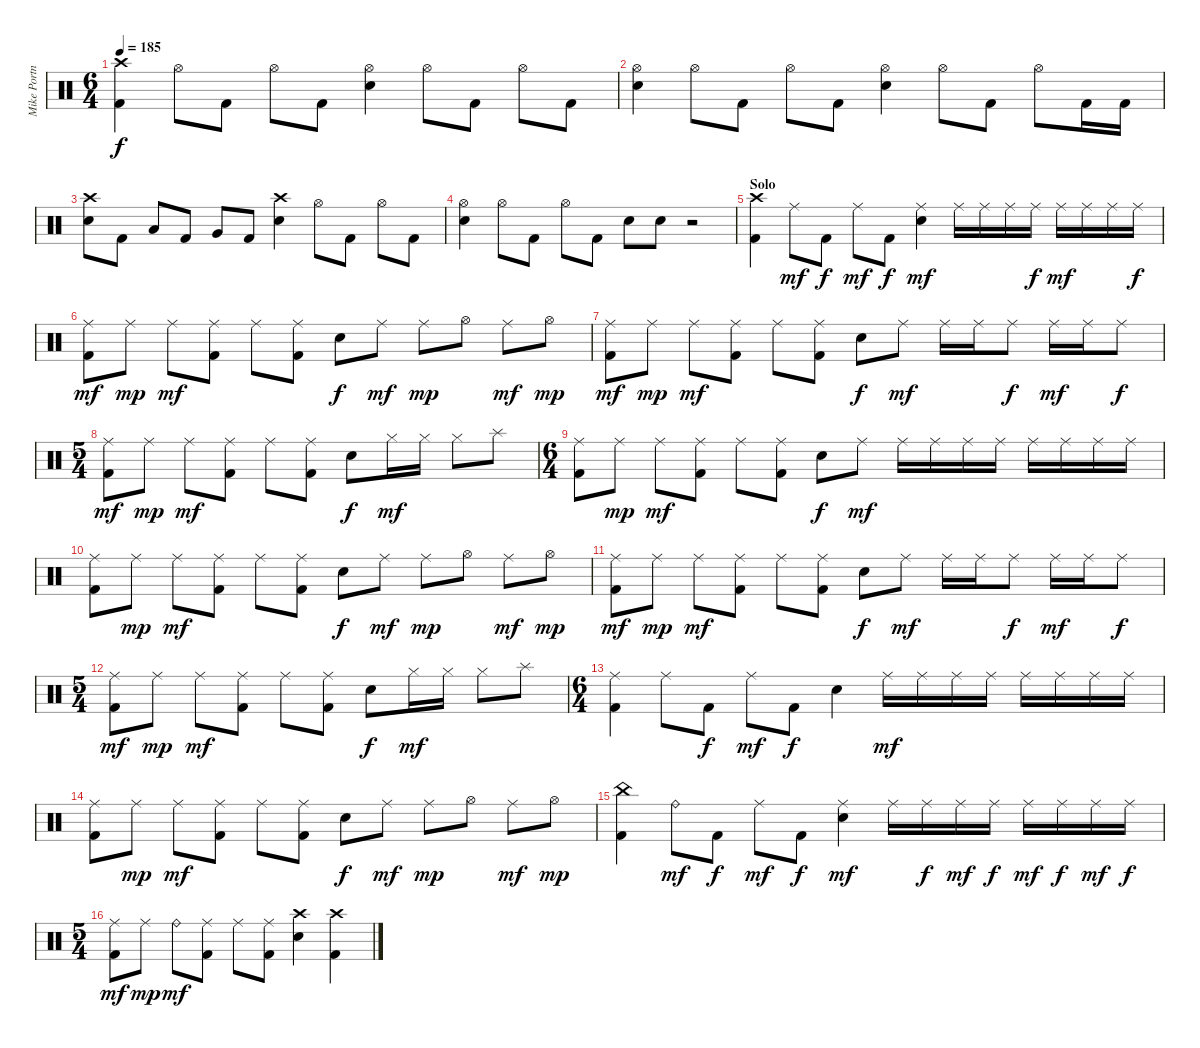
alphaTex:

\track ("Mike Portnoy" "Mike Portn") {instrument percussion}
\staff {score}
\articulation defaults
\ts (6 4)
\tempo 185
\clef neutral
\ks c
("Crash high (hit)" "Kick (hit) 2").4{dy f} "Hi-Hat (open)".8 "Kick (hit) 2".8 "Hi-Hat (open)".8 "Kick (hit) 2".8 ("Snare (hit) 2" "Hi-Hat (open)").4 "Hi-Hat (open)".8 "Kick (hit) 2".8 "Hi-Hat (open)".8 "Kick (hit) 2".8 |
("Snare (hit) 2" "Hi-Hat (open)").4 "Hi-Hat (open)".8 "Kick (hit) 2".8 "Hi-Hat (open)".8 "Kick (hit) 2".8 ("Snare (hit) 2" "Hi-Hat (open)").4 "Hi-Hat (open)".8 "Kick (hit) 2".8 "Hi-Hat (open)".8 "Kick (hit) 2".16 "Kick (hit) 2".16 |
("Snare (hit) 2" "Crash high (hit)").8 "Kick (hit) 2".8 "Low Tom (hit)".8 "Kick (hit) 2".8 "Very Low Tom (hit)".8 "Kick (hit) 2".8 ("Snare (hit) 2" "Crash high (hit)").4 "Hi-Hat (open)".8 "Kick (hit) 2".8 "Hi-Hat (open)".8 "Kick (hit) 2".8 |
("Snare (hit) 2" "Hi-Hat (open)").4 "Hi-Hat (open)".8 "Kick (hit) 2".8 "Hi-Hat (open)".8 "Kick (hit) 2".8 "Snare (hit) 2".8 "Snare (hit) 2".8 r.2 |
\section ("" "Solo")
("Crash high (hit)" "Kick (hit) 2").4 "Ride (middle)".8{dy mf} "Kick (hit) 2".8{dy f} "Ride (middle)".8{dy mf} "Kick (hit) 2".8{dy f} ("Snare (hit) 2" "Ride (middle)").4{dy mf} "Ride (middle)".16 "Ride (middle)".16 "Ride (middle)".16 "Ride (middle)".16{dy f} "Ride (middle)".16{dy mf} "Ride (middle)".16 "Ride (middle)".16 "Ride (middle)".16{dy f} |
("Ride (middle)" "Kick (hit) 2").8{dy mf} "Ride (middle)".8{dy mp} "Ride (middle)".8{dy mf} ("Ride (middle)" "Kick (hit) 2").8 "Ride (middle)".8 ("Ride (middle)" "Kick (hit) 2").8 "Snare (hit) 2".8{dy f} "Ride (middle)".8{dy mf} "Ride (middle)".8{dy mp} "Hi-Hat (open)".8 "Ride (middle)".8{dy mf} "Hi-Hat (open)".8{dy mp} |
("Ride (middle)" "Kick (hit) 2").8{dy mf} "Ride (middle)".8{dy mp} "Ride (middle)".8{dy mf} ("Ride (middle)" "Kick (hit) 2").8 "Ride (middle)".8 ("Ride (middle)" "Kick (hit) 2").8 "Snare (hit) 2".8{dy f} "Ride (middle)".8{dy mf} "Ride (middle)".16 "Ride (middle)".16 "Ride (middle)".8{dy f} "Ride (middle)".16{dy mf} "Ride (middle)".16 "Ride (middle)".8{dy f} |
\ts (5 4)
("Ride (middle)" "Kick (hit) 2").8{dy mf} "Ride (middle)".8{dy mp} "Ride (middle)".8{dy mf} ("Ride (middle)" "Kick (hit) 2").8 "Ride (middle)".8 ("Ride (middle)" "Kick (hit) 2").8 "Snare (hit) 2".8{dy f} "Hi-Hat (closed)".16{dy mf} "Hi-Hat (closed)".16 "Hi-Hat (closed)".8 "Splash (hit)".8 |
\ts (6 4)
("Ride (middle)" "Kick (hit) 2").8 "Ride (middle)".8{dy mp} "Ride (middle)".8{dy mf} ("Ride (middle)" "Kick (hit) 2").8 "Ride (middle)".8 ("Ride (middle)" "Kick (hit) 2").8 "Snare (hit) 2".8{dy f} "Ride (middle)".8{dy mf} "Ride (middle)".16 "Ride (middle)".16 "Ride (middle)".16 "Ride (middle)".16 "Ride (middle)".16 "Ride (middle)".16 "Ride (middle)".16 "Ride (middle)".16 |
("Ride (middle)" "Kick (hit) 2").8 "Ride (middle)".8{dy mp} "Ride (middle)".8{dy mf} ("Ride (middle)" "Kick (hit) 2").8 "Ride (middle)".8 ("Ride (middle)" "Kick (hit) 2").8 "Snare (hit) 2".8{dy f} "Ride (middle)".8{dy mf} "Ride (middle)".8{dy mp} "Hi-Hat (open)".8 "Ride (middle)".8{dy mf} "Hi-Hat (open)".8{dy mp} |
("Ride (middle)" "Kick (hit) 2").8{dy mf} "Ride (middle)".8{dy mp} "Ride (middle)".8{dy mf} ("Ride (middle)" "Kick (hit) 2").8 "Ride (middle)".8 ("Ride (middle)" "Kick (hit) 2").8 "Snare (hit) 2".8{dy f} "Ride (middle)".8{dy mf} "Ride (middle)".16 "Ride (middle)".16 "Ride (middle)".8{dy f} "Ride (middle)".16{dy mf} "Ride (middle)".16 "Ride (middle)".8{dy f} |
\ts (5 4)
("Ride (middle)" "Kick (hit) 2").8{dy mf} "Ride (middle)".8{dy mp} "Ride (middle)".8{dy mf} ("Ride (middle)" "Kick (hit) 2").8 "Ride (middle)".8 ("Ride (middle)" "Kick (hit) 2").8 "Snare (hit) 2".8{dy f} "Hi-Hat (closed)".16{dy mf} "Hi-Hat (closed)".16 "Hi-Hat (closed)".8 "Splash (hit)".8 |
\ts (6 4)
("Ride (middle)" "Kick (hit) 2").4 "Ride (middle)".8 "Kick (hit) 2".8{dy f} "Ride (middle)".8{dy mf} "Kick (hit) 2".8{dy f} "Snare (hit) 2".4 "Ride (middle)".16{dy mf} "Ride (middle)".16 "Ride (middle)".16 "Ride (middle)".16 "Ride (middle)".16 "Ride (middle)".16 "Ride (middle)".16 "Ride (middle)".16 |
("Ride (middle)" "Kick (hit) 2").8 "Ride (middle)".8{dy mp} "Ride (middle)".8{dy mf} ("Ride (middle)" "Kick (hit) 2").8 "Ride (middle)".8 ("Ride (middle)" "Kick (hit) 2").8 "Snare (hit) 2".8{dy f} "Ride (middle)".8{dy mf} "Ride (middle)".8{dy mp} "Hi-Hat (open)".8 "Ride (middle)".8{dy mf} "Hi-Hat (open)".8{dy mp} |
("China (hit)" "Kick (hit) 2").4 "Ride (bell)".8{dy mf} "Kick (hit) 2".8{dy f} "Ride (middle)".8{dy mf} "Kick (hit) 2".8{dy f} ("Snare (hit) 2" "Ride (middle)").4{dy mf} "Ride (middle)".16 "Ride (middle)".16{dy f} "Ride (middle)".16{dy mf} "Ride (middle)".16{dy f} "Ride (middle)".16{dy mf} "Ride (middle)".16{dy f} "Ride (middle)".16{dy mf} "Ride (middle)".16{dy f} |
\ts (5 4)
("Ride (middle)" "Kick (hit) 2").8{dy mf} "Ride (middle)".8{dy mp} "Ride (bell)".8{dy mf} ("Ride (middle)" "Kick (hit) 2").8 "Ride (middle)".8 ("Ride (middle)" "Kick (hit) 2").8 ("Snare (hit) 2" "Crash high (hit)").4 ("Crash high (hit)" "Kick (hit) 2").4
